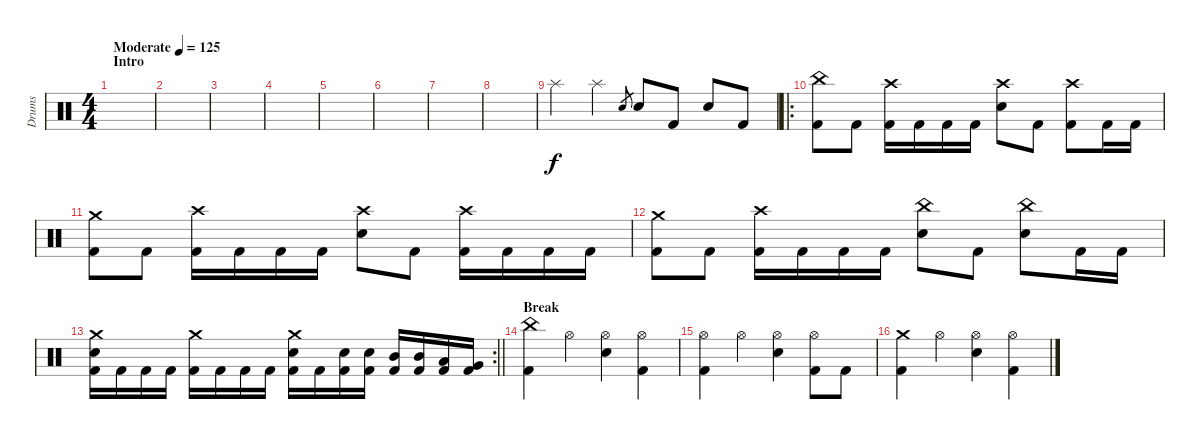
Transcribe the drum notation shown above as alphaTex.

\track ("Drums" "Drums") {instrument percussion}
\staff {score}
\articulation defaults
\ts (4 4)
\section ("" "Intro")
\tempo (125 "Moderate")
\clef neutral
\ks c
|
|
|
|
|
|
|
|
"Splash (hit)".4 "Splash (hit)".4{dy f} "Electric Snare (hit)".8{gr} "Electric Snare (hit)".8 "Kick (hit) 2".8 "Electric Snare (hit)".8 "Kick (hit) 2".8 |
\ro
("China (hit)" "Kick (hit) 2").8 "Kick (hit) 2".8 ("Crash high (hit)" "Kick (hit) 2").16 "Kick (hit) 2".16 "Kick (hit) 2".16 "Kick (hit) 2".16 ("Crash high (hit)" "Electric Snare (hit)").8 "Kick (hit) 2".8 ("Crash high (hit)" "Kick (hit) 2").8 "Kick (hit) 2".16 "Kick (hit) 2".16 |
("Crash medium (hit)" "Kick (hit) 2").8 "Kick (hit) 2".8 ("Crash high (hit)" "Kick (hit) 2").16 "Kick (hit) 2".16 "Kick (hit) 2".16 "Kick (hit) 2".16 ("Crash high (hit)" "Electric Snare (hit)").8 "Kick (hit) 2".8 ("Crash high (hit)" "Kick (hit) 2").16 "Kick (hit) 2".16 "Kick (hit) 2".16 "Kick (hit) 2".16 |
("Crash medium (hit)" "Kick (hit) 2").8 "Kick (hit) 2".8 ("Crash high (hit)" "Kick (hit) 2").16 "Kick (hit) 2".16 "Kick (hit) 2".16 "Kick (hit) 2".16 ("China (hit)" "Electric Snare (hit)").8 "Kick (hit) 2".8 ("China (hit)" "Electric Snare (hit)").8 "Kick (hit) 2".16 "Kick (hit) 2".16 |
\rc 2
\barLineRight lightlight
("Crash medium (hit)" "Electric Snare (hit)" "Kick (hit) 2").16 "Kick (hit) 2".16 "Kick (hit) 2".16 "Kick (hit) 2".16 ("Crash medium (hit)" "Kick (hit) 2").16 "Kick (hit) 2".16 "Kick (hit) 2".16 "Kick (hit) 2".16 ("Crash medium (hit)" "Electric Snare (hit)" "Kick (hit) 2").16 "Kick (hit) 2".16 ("Electric Snare (hit)" "Kick (hit) 2").16 ("Electric Snare (hit)" "Kick (hit) 2").16 ("Mid Tom (hit)" "Kick (hit) 2").16 ("Mid Tom (hit)" "Kick (hit) 2").16 ("Low Tom (hit)" "Kick (hit) 2").16 ("Very Low Tom (hit)" "Kick (hit) 2").16 |
\section ("" "Break")
("China (hit)" "Kick (hit) 2").4 "Hi-Hat (open)".4 ("Hi-Hat (open)" "Electric Snare (hit)").4 ("Hi-Hat (open)" "Kick (hit) 2").4 |
("Hi-Hat (open)" "Kick (hit) 2").4 "Hi-Hat (open)".4 ("Hi-Hat (open)" "Electric Snare (hit)").4 ("Hi-Hat (open)" "Kick (hit) 2").8 "Kick (hit) 2".8 |
("Crash medium (hit)" "Kick (hit) 2").4 "Hi-Hat (open)".4 ("Hi-Hat (open)" "Electric Snare (hit)").4 ("Hi-Hat (open)" "Kick (hit) 2").4
